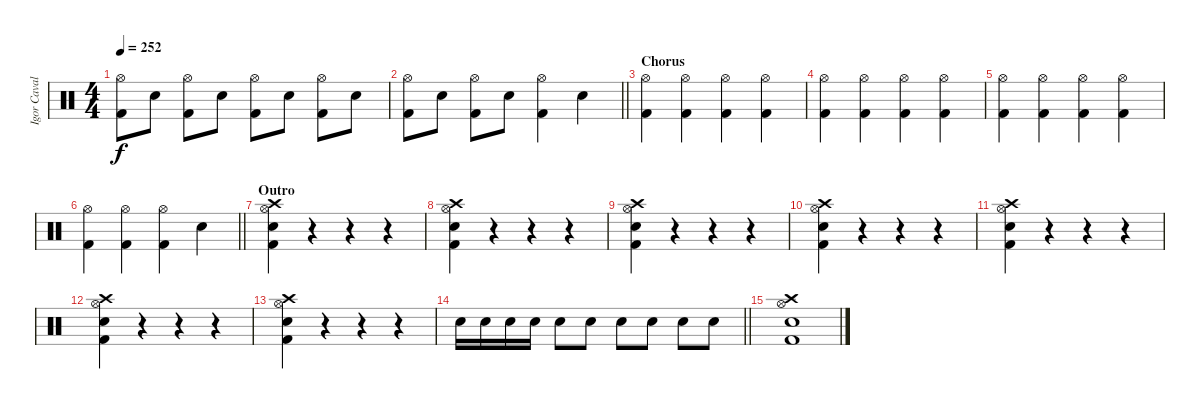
\track ("Igor Cavalera" "Igor Caval") {instrument percussion}
\staff {score}
\articulation defaults
\ts (4 4)
\tempo 252
\clef neutral
\ks c
("Hi-Hat (open)" "Kick (hit) 2").8{dy f} "Electric Snare (hit)".8 ("Hi-Hat (open)" "Kick (hit) 2").8 "Electric Snare (hit)".8 ("Hi-Hat (open)" "Kick (hit) 2").8 "Electric Snare (hit)".8 ("Hi-Hat (open)" "Kick (hit) 2").8 "Electric Snare (hit)".8 |
\barLineRight lightlight
("Hi-Hat (open)" "Kick (hit) 2").8 "Electric Snare (hit)".8 ("Hi-Hat (open)" "Kick (hit) 2").8 "Electric Snare (hit)".8 ("Hi-Hat (open)" "Kick (hit) 2").4 "Electric Snare (hit)".4 |
\section ("" "Chorus")
("Hi-Hat (open)" "Kick (hit) 2").4 ("Hi-Hat (open)" "Kick (hit) 2").4 ("Hi-Hat (open)" "Kick (hit) 2").4 ("Hi-Hat (open)" "Kick (hit) 2").4 |
("Hi-Hat (open)" "Kick (hit) 2").4 ("Hi-Hat (open)" "Kick (hit) 2").4 ("Hi-Hat (open)" "Kick (hit) 2").4 ("Hi-Hat (open)" "Kick (hit) 2").4 |
("Hi-Hat (open)" "Kick (hit) 2").4 ("Hi-Hat (open)" "Kick (hit) 2").4 ("Hi-Hat (open)" "Kick (hit) 2").4 ("Hi-Hat (open)" "Kick (hit) 2").4 |
\barLineRight lightlight
("Hi-Hat (open)" "Kick (hit) 2").4 ("Hi-Hat (open)" "Kick (hit) 2").4 ("Hi-Hat (open)" "Kick (hit) 2").4 "Electric Snare (hit)".4 |
\section ("" "Outro")
("Crash high (hit)" "Hi-Hat (open)" "Electric Snare (hit)" "Kick (hit) 2").4 r.4 r.4 r.4 |
("Crash high (hit)" "Hi-Hat (open)" "Electric Snare (hit)" "Kick (hit) 2").4 r.4 r.4 r.4 |
("Crash high (hit)" "Hi-Hat (open)" "Electric Snare (hit)" "Kick (hit) 2").4 r.4 r.4 r.4 |
("Crash high (hit)" "Hi-Hat (open)" "Electric Snare (hit)" "Kick (hit) 2").4 r.4 r.4 r.4 |
("Crash high (hit)" "Hi-Hat (open)" "Electric Snare (hit)" "Kick (hit) 2").4 r.4 r.4 r.4 |
("Crash high (hit)" "Hi-Hat (open)" "Electric Snare (hit)" "Kick (hit) 2").4 r.4 r.4 r.4 |
("Crash high (hit)" "Hi-Hat (open)" "Electric Snare (hit)" "Kick (hit) 2").4 r.4 r.4 r.4 |
\barLineRight lightlight "Electric Snare (hit)".16 "Electric Snare (hit)".16 "Electric Snare (hit)".16 "Electric Snare (hit)".16 "Electric Snare (hit)".8 "Electric Snare (hit)".8 "Electric Snare (hit)".8 "Electric Snare (hit)".8 "Electric Snare (hit)".8 "Electric Snare (hit)".8
|
("Crash high (hit)" "Hi-Hat (open)" "Electric Snare (hit)" "Kick (hit) 2").1
